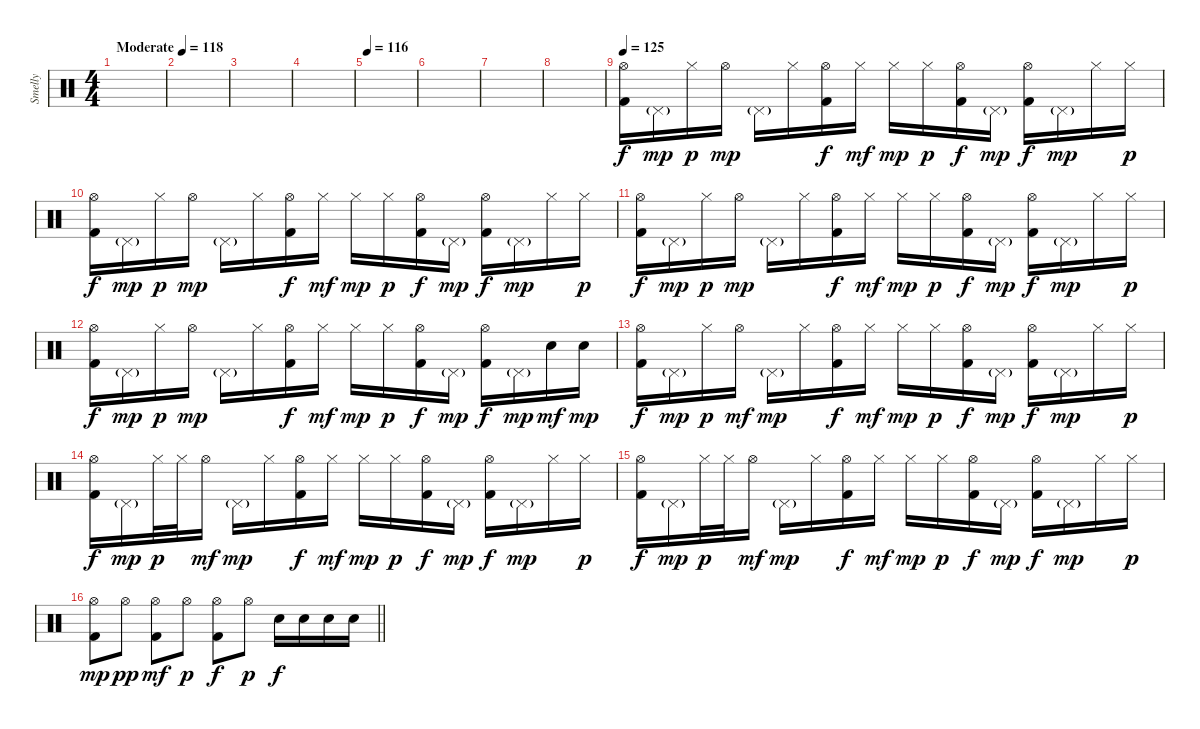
\track ("Smelly" "Smelly") {instrument percussion}
\staff {score}
\articulation defaults
\ts (4 4)
\tempo (118 "Moderate")
\clef neutral
\ks c
|
|
|
|
\tempo 116
|
|
|
|
\tempo 125
("Hi-Hat (open)" "Kick (hit) 2").16 "Pedal Hi-Hat (hit)"{g}.16{dy mp} "Hi-Hat (closed)".16{dy p} "Hi-Hat (open)".16{dy mp} "Pedal Hi-Hat (hit)"{g}.16 "Hi-Hat (closed)".16 ("Hi-Hat (open)" "Kick (hit) 2").16{dy f} "Hi-Hat (closed)".16{dy mf} "Hi-Hat (closed)".16{dy mp} "Hi-Hat (closed)".16{dy p} ("Hi-Hat (open)" "Kick (hit) 2").16{dy f} "Pedal Hi-Hat (hit)"{g}.16{dy mp} ("Hi-Hat (open)" "Kick (hit) 2").16{dy f} "Pedal Hi-Hat (hit)"{g}.16{dy mp} "Hi-Hat (closed)".16 "Hi-Hat (closed)".16{dy p} |
("Hi-Hat (open)" "Kick (hit) 2").16{dy f} "Pedal Hi-Hat (hit)"{g}.16{dy mp} "Hi-Hat (closed)".16{dy p} "Hi-Hat (open)".16{dy mp} "Pedal Hi-Hat (hit)"{g}.16 "Hi-Hat (closed)".16 ("Hi-Hat (open)" "Kick (hit) 2").16{dy f} "Hi-Hat (closed)".16{dy mf} "Hi-Hat (closed)".16{dy mp} "Hi-Hat (closed)".16{dy p} ("Hi-Hat (open)" "Kick (hit) 2").16{dy f} "Pedal Hi-Hat (hit)"{g}.16{dy mp} ("Hi-Hat (open)" "Kick (hit) 2").16{dy f} "Pedal Hi-Hat (hit)"{g}.16{dy mp} "Hi-Hat (closed)".16 "Hi-Hat (closed)".16{dy p} |
("Hi-Hat (open)" "Kick (hit) 2").16{dy f} "Pedal Hi-Hat (hit)"{g}.16{dy mp} "Hi-Hat (closed)".16{dy p} "Hi-Hat (open)".16{dy mp} "Pedal Hi-Hat (hit)"{g}.16 "Hi-Hat (closed)".16 ("Hi-Hat (open)" "Kick (hit) 2").16{dy f} "Hi-Hat (closed)".16{dy mf} "Hi-Hat (closed)".16{dy mp} "Hi-Hat (closed)".16{dy p} ("Hi-Hat (open)" "Kick (hit) 2").16{dy f} "Pedal Hi-Hat (hit)"{g}.16{dy mp} ("Hi-Hat (open)" "Kick (hit) 2").16{dy f} "Pedal Hi-Hat (hit)"{g}.16{dy mp} "Hi-Hat (closed)".16 "Hi-Hat (closed)".16{dy p} |
("Hi-Hat (open)" "Kick (hit) 2").16{dy f} "Pedal Hi-Hat (hit)"{g}.16{dy mp} "Hi-Hat (closed)".16{dy p} "Hi-Hat (open)".16{dy mp} "Pedal Hi-Hat (hit)"{g}.16 "Hi-Hat (closed)".16 ("Hi-Hat (open)" "Kick (hit) 2").16{dy f} "Hi-Hat (closed)".16{dy mf} "Hi-Hat (closed)".16{dy mp} "Hi-Hat (closed)".16{dy p} ("Hi-Hat (open)" "Kick (hit) 2").16{dy f} "Pedal Hi-Hat (hit)"{g}.16{dy mp} ("Hi-Hat (open)" "Kick (hit) 2").16{dy f} "Pedal Hi-Hat (hit)"{g}.16{dy mp} "Electric Snare (hit)".16{dy mf} "Electric Snare (hit)".16{dy mp} |
("Hi-Hat (open)" "Kick (hit) 2").16{dy f} "Pedal Hi-Hat (hit)"{g}.16{dy mp} "Hi-Hat (closed)".16{dy p} "Hi-Hat (open)".16{dy mf} "Pedal Hi-Hat (hit)"{g}.16{dy mp} "Hi-Hat (closed)".16 ("Hi-Hat (open)" "Kick (hit) 2").16{dy f} "Hi-Hat (closed)".16{dy mf} "Hi-Hat (closed)".16{dy mp} "Hi-Hat (closed)".16{dy p} ("Hi-Hat (open)" "Kick (hit) 2").16{dy f} "Pedal Hi-Hat (hit)"{g}.16{dy mp} ("Hi-Hat (open)" "Kick (hit) 2").16{dy f} "Pedal Hi-Hat (hit)"{g}.16{dy mp} "Hi-Hat (closed)".16 "Hi-Hat (closed)".16{dy p} |
("Hi-Hat (open)" "Kick (hit) 2").16{dy f} "Pedal Hi-Hat (hit)"{g}.16{dy mp} "Hi-Hat (closed)".32{dy p} "Hi-Hat (closed)".32 "Hi-Hat (open)".16{dy mf} "Pedal Hi-Hat (hit)"{g}.16{dy mp} "Hi-Hat (closed)".16 ("Hi-Hat (open)" "Kick (hit) 2").16{dy f} "Hi-Hat (closed)".16{dy mf} "Hi-Hat (closed)".16{dy mp} "Hi-Hat (closed)".16{dy p} ("Hi-Hat (open)" "Kick (hit) 2").16{dy f} "Pedal Hi-Hat (hit)"{g}.16{dy mp} ("Hi-Hat (open)" "Kick (hit) 2").16{dy f} "Pedal Hi-Hat (hit)"{g}.16{dy mp} "Hi-Hat (closed)".16 "Hi-Hat (closed)".16{dy p} |
("Hi-Hat (open)" "Kick (hit) 2").16{dy f} "Pedal Hi-Hat (hit)"{g}.16{dy mp} "Hi-Hat (closed)".32{dy p} "Hi-Hat (closed)".32 "Hi-Hat (open)".16{dy mf} "Pedal Hi-Hat (hit)"{g}.16{dy mp} "Hi-Hat (closed)".16 ("Hi-Hat (open)" "Kick (hit) 2").16{dy f} "Hi-Hat (closed)".16{dy mf} "Hi-Hat (closed)".16{dy mp} "Hi-Hat (closed)".16{dy p} ("Hi-Hat (open)" "Kick (hit) 2").16{dy f} "Pedal Hi-Hat (hit)"{g}.16{dy mp} ("Hi-Hat (open)" "Kick (hit) 2").16{dy f} "Pedal Hi-Hat (hit)"{g}.16{dy mp} "Hi-Hat (closed)".16 "Hi-Hat (closed)".16{dy p} |
\barLineRight lightlight
("Hi-Hat (open)" "Kick (hit) 2").8{dy mp} "Hi-Hat (open)".8{dy pp} ("Hi-Hat (open)" "Kick (hit) 2").8{dy mf} "Hi-Hat (open)".8{dy p} ("Hi-Hat (open)" "Kick (hit) 2").8{dy f} "Hi-Hat (open)".8{dy p} "Electric Snare (hit)".16{dy f} "Electric Snare (hit)".16 "Electric Snare (hit)".16 "Electric Snare (hit)".16
